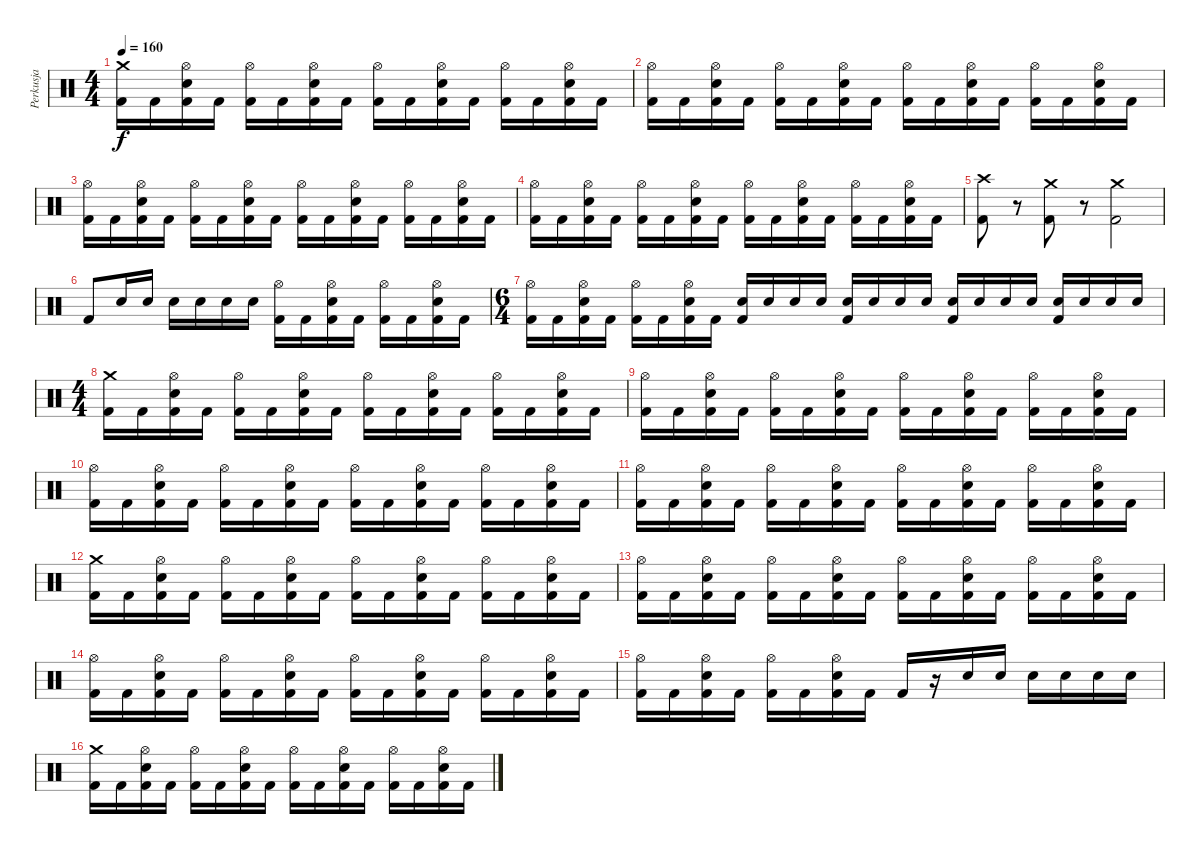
\track ("Perkusja" "Perkusja") {instrument percussion}
\staff {score}
\articulation defaults
\ts (4 4)
\tempo 160
\clef neutral
\ks c
("Crash medium (hit)" "Kick (hit) 2").16{dy f} "Kick (hit) 2".16 ("Hi-Hat (open)" "Snare (hit) 2" "Kick (hit) 2").16 "Kick (hit) 2".16 ("Hi-Hat (open)" "Kick (hit) 2").16 "Kick (hit) 2".16 ("Hi-Hat (open)" "Snare (hit) 2" "Kick (hit) 2").16 "Kick (hit) 2".16 ("Hi-Hat (open)" "Kick (hit) 2").16 "Kick (hit) 2".16 ("Hi-Hat (open)" "Snare (hit) 2" "Kick (hit) 2").16 "Kick (hit) 2".16 ("Hi-Hat (open)" "Kick (hit) 2").16 "Kick (hit) 2".16 ("Hi-Hat (open)" "Snare (hit) 2" "Kick (hit) 2").16 "Kick (hit) 2".16 |
("Hi-Hat (open)" "Kick (hit) 2").16 "Kick (hit) 2".16 ("Hi-Hat (open)" "Snare (hit) 2" "Kick (hit) 2").16 "Kick (hit) 2".16 ("Hi-Hat (open)" "Kick (hit) 2").16 "Kick (hit) 2".16 ("Hi-Hat (open)" "Snare (hit) 2" "Kick (hit) 2").16 "Kick (hit) 2".16 ("Hi-Hat (open)" "Kick (hit) 2").16 "Kick (hit) 2".16 ("Hi-Hat (open)" "Snare (hit) 2" "Kick (hit) 2").16 "Kick (hit) 2".16 ("Hi-Hat (open)" "Kick (hit) 2").16 "Kick (hit) 2".16 ("Hi-Hat (open)" "Snare (hit) 2" "Kick (hit) 2").16 "Kick (hit) 2".16 |
("Hi-Hat (open)" "Kick (hit) 2").16 "Kick (hit) 2".16 ("Hi-Hat (open)" "Snare (hit) 2" "Kick (hit) 2").16 "Kick (hit) 2".16 ("Hi-Hat (open)" "Kick (hit) 2").16 "Kick (hit) 2".16 ("Hi-Hat (open)" "Snare (hit) 2" "Kick (hit) 2").16 "Kick (hit) 2".16 ("Hi-Hat (open)" "Kick (hit) 2").16 "Kick (hit) 2".16 ("Hi-Hat (open)" "Snare (hit) 2" "Kick (hit) 2").16 "Kick (hit) 2".16 ("Hi-Hat (open)" "Kick (hit) 2").16 "Kick (hit) 2".16 ("Hi-Hat (open)" "Snare (hit) 2" "Kick (hit) 2").16 "Kick (hit) 2".16 |
("Hi-Hat (open)" "Kick (hit) 2").16 "Kick (hit) 2".16 ("Hi-Hat (open)" "Snare (hit) 2" "Kick (hit) 2").16 "Kick (hit) 2".16 ("Hi-Hat (open)" "Kick (hit) 2").16 "Kick (hit) 2".16 ("Hi-Hat (open)" "Snare (hit) 2" "Kick (hit) 2").16 "Kick (hit) 2".16 ("Hi-Hat (open)" "Kick (hit) 2").16 "Kick (hit) 2".16 ("Hi-Hat (open)" "Snare (hit) 2" "Kick (hit) 2").16 "Kick (hit) 2".16 ("Hi-Hat (open)" "Kick (hit) 2").16 "Kick (hit) 2".16 ("Hi-Hat (open)" "Snare (hit) 2" "Kick (hit) 2").16 "Kick (hit) 2".16 |
("Crash high (hit)" "Kick (hit) 2").8 r.8 ("Crash medium (hit)" "Kick (hit) 2").8 r.8 ("Crash medium (hit)" "Kick (hit) 2").2 |
"Kick (hit) 2".8 "Snare (hit) 2".16 "Snare (hit) 2".16 "Snare (hit) 2".16 "Snare (hit) 2".16 "Snare (hit) 2".16 "Snare (hit) 2".16 ("Hi-Hat (open)" "Kick (hit) 2").16 "Kick (hit) 2".16 ("Hi-Hat (open)" "Snare (hit) 2" "Kick (hit) 2").16 "Kick (hit) 2".16 ("Hi-Hat (open)" "Kick (hit) 2").16 "Kick (hit) 2".16 ("Hi-Hat (open)" "Snare (hit) 2" "Kick (hit) 2").16 "Kick (hit) 2".16 |
\ts (6 4)
("Hi-Hat (open)" "Kick (hit) 2").16 "Kick (hit) 2".16 ("Hi-Hat (open)" "Snare (hit) 2" "Kick (hit) 2").16 "Kick (hit) 2".16 ("Hi-Hat (open)" "Kick (hit) 2").16 "Kick (hit) 2".16 ("Hi-Hat (open)" "Snare (hit) 2" "Kick (hit) 2").16 "Kick (hit) 2".16 ("Snare (hit) 2" "Kick (hit) 2").16 "Snare (hit) 2".16 "Snare (hit) 2".16 "Snare (hit) 2".16 ("Snare (hit) 2" "Kick (hit) 2").16 "Snare (hit) 2".16 "Snare (hit) 2".16 "Snare (hit) 2".16 ("Snare (hit) 2" "Kick (hit) 2").16 "Snare (hit) 2".16 "Snare (hit) 2".16 "Snare (hit) 2".16 ("Snare (hit) 2" "Kick (hit) 2").16 "Snare (hit) 2".16 "Snare (hit) 2".16 "Snare (hit) 2".16 |
\ts (4 4)
("Crash medium (hit)" "Kick (hit) 2").16 "Kick (hit) 2".16 ("Hi-Hat (open)" "Snare (hit) 2" "Kick (hit) 2").16 "Kick (hit) 2".16 ("Hi-Hat (open)" "Kick (hit) 2").16 "Kick (hit) 2".16 ("Hi-Hat (open)" "Snare (hit) 2" "Kick (hit) 2").16 "Kick (hit) 2".16 ("Hi-Hat (open)" "Kick (hit) 2").16 "Kick (hit) 2".16 ("Hi-Hat (open)" "Snare (hit) 2" "Kick (hit) 2").16 "Kick (hit) 2".16 ("Hi-Hat (open)" "Kick (hit) 2").16 "Kick (hit) 2".16 ("Hi-Hat (open)" "Snare (hit) 2" "Kick (hit) 2").16 "Kick (hit) 2".16 |
("Hi-Hat (open)" "Kick (hit) 2").16 "Kick (hit) 2".16 ("Hi-Hat (open)" "Snare (hit) 2" "Kick (hit) 2").16 "Kick (hit) 2".16 ("Hi-Hat (open)" "Kick (hit) 2").16 "Kick (hit) 2".16 ("Hi-Hat (open)" "Snare (hit) 2" "Kick (hit) 2").16 "Kick (hit) 2".16 ("Hi-Hat (open)" "Kick (hit) 2").16 "Kick (hit) 2".16 ("Hi-Hat (open)" "Snare (hit) 2" "Kick (hit) 2").16 "Kick (hit) 2".16 ("Hi-Hat (open)" "Kick (hit) 2").16 "Kick (hit) 2".16 ("Hi-Hat (open)" "Snare (hit) 2" "Kick (hit) 2").16 "Kick (hit) 2".16 |
("Hi-Hat (open)" "Kick (hit) 2").16 "Kick (hit) 2".16 ("Hi-Hat (open)" "Snare (hit) 2" "Kick (hit) 2").16 "Kick (hit) 2".16 ("Hi-Hat (open)" "Kick (hit) 2").16 "Kick (hit) 2".16 ("Hi-Hat (open)" "Snare (hit) 2" "Kick (hit) 2").16 "Kick (hit) 2".16 ("Hi-Hat (open)" "Kick (hit) 2").16 "Kick (hit) 2".16 ("Hi-Hat (open)" "Snare (hit) 2" "Kick (hit) 2").16 "Kick (hit) 2".16 ("Hi-Hat (open)" "Kick (hit) 2").16 "Kick (hit) 2".16 ("Hi-Hat (open)" "Snare (hit) 2" "Kick (hit) 2").16 "Kick (hit) 2".16 |
("Hi-Hat (open)" "Kick (hit) 2").16 "Kick (hit) 2".16 ("Hi-Hat (open)" "Snare (hit) 2" "Kick (hit) 2").16 "Kick (hit) 2".16 ("Hi-Hat (open)" "Kick (hit) 2").16 "Kick (hit) 2".16 ("Hi-Hat (open)" "Snare (hit) 2" "Kick (hit) 2").16 "Kick (hit) 2".16 ("Hi-Hat (open)" "Kick (hit) 2").16 "Kick (hit) 2".16 ("Hi-Hat (open)" "Snare (hit) 2" "Kick (hit) 2").16 "Kick (hit) 2".16 ("Hi-Hat (open)" "Kick (hit) 2").16 "Kick (hit) 2".16 ("Hi-Hat (open)" "Snare (hit) 2" "Kick (hit) 2").16 "Kick (hit) 2".16 |
("Crash medium (hit)" "Kick (hit) 2").16 "Kick (hit) 2".16 ("Hi-Hat (open)" "Snare (hit) 2" "Kick (hit) 2").16 "Kick (hit) 2".16 ("Hi-Hat (open)" "Kick (hit) 2").16 "Kick (hit) 2".16 ("Hi-Hat (open)" "Snare (hit) 2" "Kick (hit) 2").16 "Kick (hit) 2".16 ("Hi-Hat (open)" "Kick (hit) 2").16 "Kick (hit) 2".16 ("Hi-Hat (open)" "Snare (hit) 2" "Kick (hit) 2").16 "Kick (hit) 2".16 ("Hi-Hat (open)" "Kick (hit) 2").16 "Kick (hit) 2".16 ("Hi-Hat (open)" "Snare (hit) 2" "Kick (hit) 2").16 "Kick (hit) 2".16 |
("Hi-Hat (open)" "Kick (hit) 2").16 "Kick (hit) 2".16 ("Hi-Hat (open)" "Snare (hit) 2" "Kick (hit) 2").16 "Kick (hit) 2".16 ("Hi-Hat (open)" "Kick (hit) 2").16 "Kick (hit) 2".16 ("Hi-Hat (open)" "Snare (hit) 2" "Kick (hit) 2").16 "Kick (hit) 2".16 ("Hi-Hat (open)" "Kick (hit) 2").16 "Kick (hit) 2".16 ("Hi-Hat (open)" "Snare (hit) 2" "Kick (hit) 2").16 "Kick (hit) 2".16 ("Hi-Hat (open)" "Kick (hit) 2").16 "Kick (hit) 2".16 ("Hi-Hat (open)" "Snare (hit) 2" "Kick (hit) 2").16 "Kick (hit) 2".16 |
("Hi-Hat (open)" "Kick (hit) 2").16 "Kick (hit) 2".16 ("Hi-Hat (open)" "Snare (hit) 2" "Kick (hit) 2").16 "Kick (hit) 2".16 ("Hi-Hat (open)" "Kick (hit) 2").16 "Kick (hit) 2".16 ("Hi-Hat (open)" "Snare (hit) 2" "Kick (hit) 2").16 "Kick (hit) 2".16 ("Hi-Hat (open)" "Kick (hit) 2").16 "Kick (hit) 2".16 ("Hi-Hat (open)" "Snare (hit) 2" "Kick (hit) 2").16 "Kick (hit) 2".16 ("Hi-Hat (open)" "Kick (hit) 2").16 "Kick (hit) 2".16 ("Hi-Hat (open)" "Snare (hit) 2" "Kick (hit) 2").16 "Kick (hit) 2".16 |
("Hi-Hat (open)" "Kick (hit) 2").16 "Kick (hit) 2".16 ("Hi-Hat (open)" "Snare (hit) 2" "Kick (hit) 2").16 "Kick (hit) 2".16 ("Hi-Hat (open)" "Kick (hit) 2").16 "Kick (hit) 2".16 ("Hi-Hat (open)" "Snare (hit) 2" "Kick (hit) 2").16 "Kick (hit) 2".16 "Kick (hit) 2".16 r.16 "Snare (hit) 2".16 "Snare (hit) 2".16 "Snare (hit) 2".16 "Snare (hit) 2".16 "Snare (hit) 2".16 "Snare (hit) 2".16 |
("Crash medium (hit)" "Kick (hit) 2").16 "Kick (hit) 2".16 ("Hi-Hat (open)" "Snare (hit) 2" "Kick (hit) 2").16 "Kick (hit) 2".16 ("Hi-Hat (open)" "Kick (hit) 2").16 "Kick (hit) 2".16 ("Hi-Hat (open)" "Snare (hit) 2" "Kick (hit) 2").16 "Kick (hit) 2".16 ("Hi-Hat (open)" "Kick (hit) 2").16 "Kick (hit) 2".16 ("Hi-Hat (open)" "Snare (hit) 2" "Kick (hit) 2").16 "Kick (hit) 2".16 ("Hi-Hat (open)" "Kick (hit) 2").16 "Kick (hit) 2".16 ("Hi-Hat (open)" "Snare (hit) 2" "Kick (hit) 2").16 "Kick (hit) 2".16
